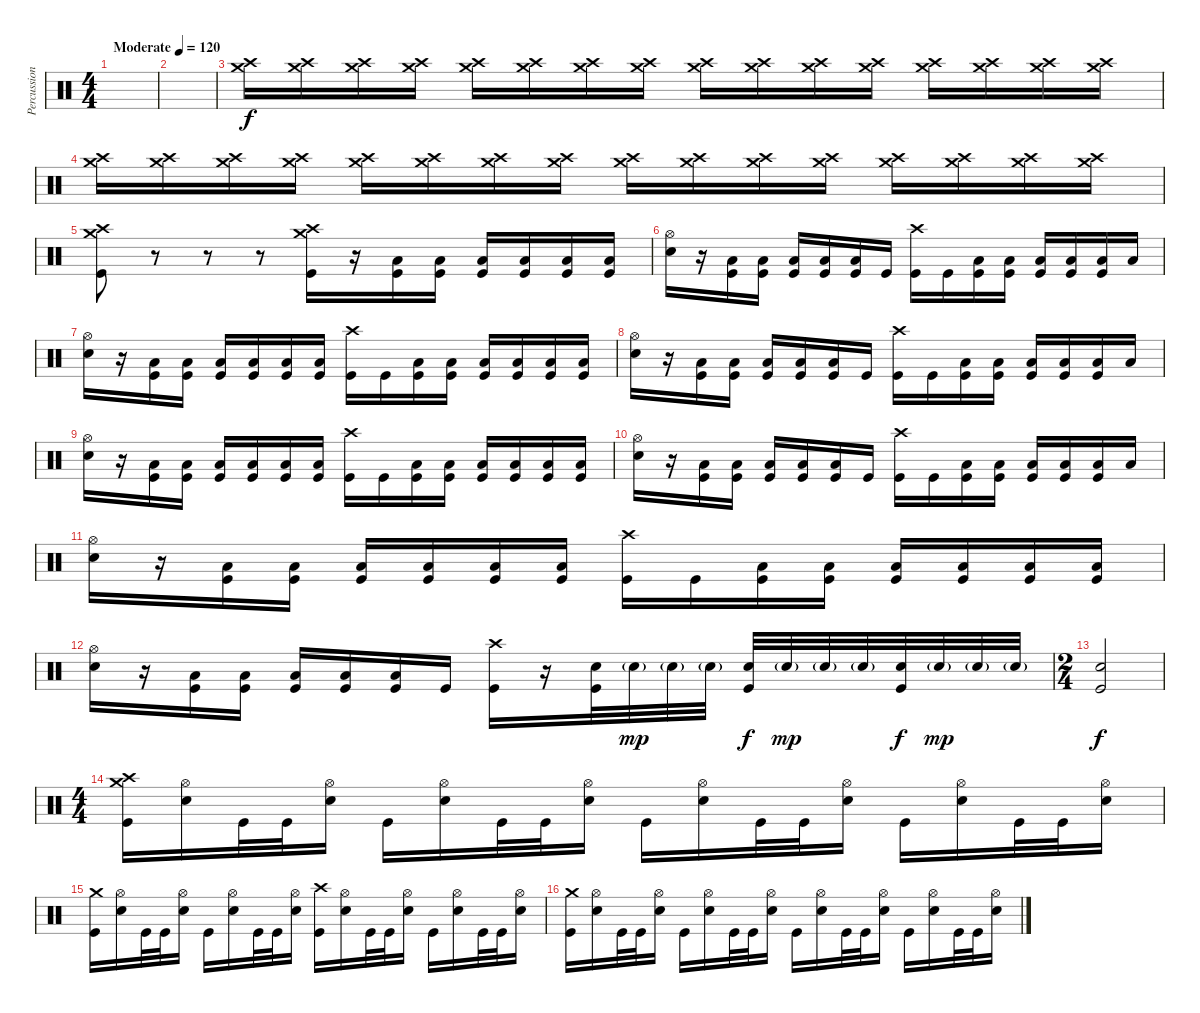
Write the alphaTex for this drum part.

\track ("Percussion" "Percussion") {instrument percussion}
\staff {score}
\articulation defaults
\ts (4 4)
\tempo (120 "Moderate")
\clef neutral
\ks c
|
|
("Crash medium (hit)" "Crash high (hit)").16{volume 0} ("Crash medium (hit)" "Crash high (hit)").16 ("Crash medium (hit)" "Crash high (hit)").16 ("Crash medium (hit)" "Crash high (hit)").16 ("Crash medium (hit)" "Crash high (hit)").16 ("Crash medium (hit)" "Crash high (hit)").16 ("Crash medium (hit)" "Crash high (hit)").16 ("Crash medium (hit)" "Crash high (hit)").16 ("Crash medium (hit)" "Crash high (hit)").16{volume 2} ("Crash medium (hit)" "Crash high (hit)").16 ("Crash medium (hit)" "Crash high (hit)").16 ("Crash medium (hit)" "Crash high (hit)").16 ("Crash medium (hit)" "Crash high (hit)").16 ("Crash medium (hit)" "Crash high (hit)").16 ("Crash medium (hit)" "Crash high (hit)").16 ("Crash medium (hit)" "Crash high (hit)").16 |
("Crash medium (hit)" "Crash high (hit)").16{volume 4} ("Crash medium (hit)" "Crash high (hit)").16 ("Crash medium (hit)" "Crash high (hit)").16 ("Crash medium (hit)" "Crash high (hit)").16 ("Crash medium (hit)" "Crash high (hit)").16 ("Crash medium (hit)" "Crash high (hit)").16 ("Crash medium (hit)" "Crash high (hit)").16 ("Crash medium (hit)" "Crash high (hit)").16 ("Crash medium (hit)" "Crash high (hit)").16{volume 8} ("Crash medium (hit)" "Crash high (hit)").16 ("Crash medium (hit)" "Crash high (hit)").16 ("Crash medium (hit)" "Crash high (hit)").16 ("Crash medium (hit)" "Crash high (hit)").16 ("Crash medium (hit)" "Crash high (hit)").16 ("Crash medium (hit)" "Crash high (hit)").16 ("Crash medium (hit)" "Crash high (hit)").16 |
("Crash medium (hit)" "Crash high (hit)" "Kick (hit)").8{volume 13} r.8{volume 0} r.8 r.8 ("Crash medium (hit)" "Crash high (hit)" "Kick (hit)").16{volume 13} r.16 ("Low Tom (hit)" "Kick (hit)").16 ("Low Tom (hit)" "Kick (hit)").16 ("Low Floor Tom (hit)" "Kick (hit)").16 ("Low Floor Tom (hit)" "Kick (hit)").16 ("Low Floor Tom (hit)" "Kick (hit)").16 ("Low Floor Tom (hit)" "Kick (hit)").16 |
("Hi-Hat (open)" "Snare (hit) 2").16 r.16 ("Low Tom (hit)" "Kick (hit)").16 ("Low Tom (hit)" "Kick (hit)").16 ("Low Floor Tom (hit)" "Kick (hit)").16 ("Low Floor Tom (hit)" "Kick (hit)").16 ("Low Floor Tom (hit)" "Kick (hit)").16 "Kick (hit)".16 ("Crash high (hit)" "Kick (hit)").16 "Kick (hit)".16 ("Low Tom (hit)" "Kick (hit)").16 ("Low Tom (hit)" "Kick (hit)").16 ("Low Floor Tom (hit)" "Kick (hit)").16 ("Low Floor Tom (hit)" "Kick (hit)").16 ("Low Floor Tom (hit)" "Kick (hit)").16 "Low Floor Tom (hit)".16 |
("Hi-Hat (open)" "Snare (hit) 2").16 r.16 ("Low Tom (hit)" "Kick (hit)").16 ("Low Tom (hit)" "Kick (hit)").16 ("Low Floor Tom (hit)" "Kick (hit)").16 ("Low Floor Tom (hit)" "Kick (hit)").16 ("Low Floor Tom (hit)" "Kick (hit)").16 ("Low Floor Tom (hit)" "Kick (hit)").16 ("Crash high (hit)" "Kick (hit)").16 "Kick (hit)".16 ("Low Tom (hit)" "Kick (hit)").16 ("Low Tom (hit)" "Kick (hit)").16 ("Low Floor Tom (hit)" "Kick (hit)").16 ("Low Floor Tom (hit)" "Kick (hit)").16 ("Low Floor Tom (hit)" "Kick (hit)").16 ("Low Floor Tom (hit)" "Kick (hit)").16 |
("Hi-Hat (open)" "Snare (hit) 2").16 r.16 ("Low Tom (hit)" "Kick (hit)").16 ("Low Tom (hit)" "Kick (hit)").16 ("Low Floor Tom (hit)" "Kick (hit)").16 ("Low Floor Tom (hit)" "Kick (hit)").16 ("Low Floor Tom (hit)" "Kick (hit)").16 "Kick (hit)".16 ("Crash high (hit)" "Kick (hit)").16 "Kick (hit)".16 ("Low Tom (hit)" "Kick (hit)").16 ("Low Tom (hit)" "Kick (hit)").16 ("Low Floor Tom (hit)" "Kick (hit)").16 ("Low Floor Tom (hit)" "Kick (hit)").16 ("Low Floor Tom (hit)" "Kick (hit)").16 "Low Floor Tom (hit)".16 |
("Hi-Hat (open)" "Snare (hit) 2").16 r.16 ("Low Tom (hit)" "Kick (hit)").16 ("Low Tom (hit)" "Kick (hit)").16 ("Low Floor Tom (hit)" "Kick (hit)").16 ("Low Floor Tom (hit)" "Kick (hit)").16 ("Low Floor Tom (hit)" "Kick (hit)").16 ("Low Floor Tom (hit)" "Kick (hit)").16 ("Crash high (hit)" "Kick (hit)").16 "Kick (hit)".16 ("Low Tom (hit)" "Kick (hit)").16 ("Low Tom (hit)" "Kick (hit)").16 ("Low Floor Tom (hit)" "Kick (hit)").16 ("Low Floor Tom (hit)" "Kick (hit)").16 ("Low Floor Tom (hit)" "Kick (hit)").16 ("Low Floor Tom (hit)" "Kick (hit)").16 |
("Hi-Hat (open)" "Snare (hit) 2").16 r.16 ("Low Tom (hit)" "Kick (hit)").16 ("Low Tom (hit)" "Kick (hit)").16 ("Low Floor Tom (hit)" "Kick (hit)").16 ("Low Floor Tom (hit)" "Kick (hit)").16 ("Low Floor Tom (hit)" "Kick (hit)").16 "Kick (hit)".16 ("Crash high (hit)" "Kick (hit)").16 "Kick (hit)".16 ("Low Tom (hit)" "Kick (hit)").16 ("Low Tom (hit)" "Kick (hit)").16 ("Low Floor Tom (hit)" "Kick (hit)").16 ("Low Floor Tom (hit)" "Kick (hit)").16 ("Low Floor Tom (hit)" "Kick (hit)").16 "Low Floor Tom (hit)".16 |
("Hi-Hat (open)" "Snare (hit) 2").16 r.16 ("Low Tom (hit)" "Kick (hit)").16 ("Low Tom (hit)" "Kick (hit)").16 ("Low Floor Tom (hit)" "Kick (hit)").16 ("Low Floor Tom (hit)" "Kick (hit)").16 ("Low Floor Tom (hit)" "Kick (hit)").16 ("Low Floor Tom (hit)" "Kick (hit)").16 ("Crash high (hit)" "Kick (hit)").16 "Kick (hit)".16 ("Low Tom (hit)" "Kick (hit)").16 ("Low Tom (hit)" "Kick (hit)").16 ("Low Floor Tom (hit)" "Kick (hit)").16 ("Low Floor Tom (hit)" "Kick (hit)").16 ("Low Floor Tom (hit)" "Kick (hit)").16 ("Low Floor Tom (hit)" "Kick (hit)").16 |
("Hi-Hat (open)" "Snare (hit) 2").16 r.16 ("Low Tom (hit)" "Kick (hit)").16 ("Low Tom (hit)" "Kick (hit)").16 ("Low Floor Tom (hit)" "Kick (hit)").16 ("Low Floor Tom (hit)" "Kick (hit)").16 ("Low Floor Tom (hit)" "Kick (hit)").16 "Kick (hit)".16 ("Crash high (hit)" "Kick (hit)").16 r.16 ("Snare (hit) 2" "Kick (hit)").32 "Snare (hit) 2"{g}.32{dy mp} "Snare (hit) 2"{g}.32 "Snare (hit) 2"{g}.32 ("Snare (hit) 2" "Kick (hit)").32{dy f} "Snare (hit) 2"{g}.32{dy mp} "Snare (hit) 2"{g}.32 "Snare (hit) 2"{g}.32 ("Snare (hit) 2" "Kick (hit)").32{dy f} "Snare (hit) 2"{g}.32{dy mp} "Snare (hit) 2"{g}.32 "Snare (hit) 2"{g}.32 |
\ts (2 4)
("Snare (hit) 2" "Kick (hit)").2{dy f} |
\ts (4 4)
("Crash medium (hit)" "Crash high (hit)" "Kick (hit)").16 ("Hi-Hat (open)" "Snare (hit) 2").16 "Kick (hit)".32 "Kick (hit)".32 ("Hi-Hat (open)" "Snare (hit) 2").16 "Kick (hit)".16 ("Hi-Hat (open)" "Snare (hit) 2").16 "Kick (hit)".32 "Kick (hit)".32 ("Hi-Hat (open)" "Snare (hit) 2").16 "Kick (hit)".16 ("Hi-Hat (open)" "Snare (hit) 2").16 "Kick (hit)".32 "Kick (hit)".32 ("Hi-Hat (open)" "Snare (hit) 2").16 "Kick (hit)".16 ("Hi-Hat (open)" "Snare (hit) 2").16 "Kick (hit)".32 "Kick (hit)".32 ("Hi-Hat (open)" "Snare (hit) 2").16 |
("Crash medium (hit)" "Kick (hit)").16 ("Hi-Hat (open)" "Snare (hit) 2").16 "Kick (hit)".32 "Kick (hit)".32 ("Hi-Hat (open)" "Snare (hit) 2").16 "Kick (hit)".16 ("Hi-Hat (open)" "Snare (hit) 2").16 "Kick (hit)".32 "Kick (hit)".32 ("Hi-Hat (open)" "Snare (hit) 2").16 ("Crash high (hit)" "Kick (hit)").16 ("Hi-Hat (open)" "Snare (hit) 2").16 "Kick (hit)".32 "Kick (hit)".32 ("Hi-Hat (open)" "Snare (hit) 2").16 "Kick (hit)".16 ("Hi-Hat (open)" "Snare (hit) 2").16 "Kick (hit)".32 "Kick (hit)".32 ("Hi-Hat (open)" "Snare (hit) 2").16 |
("Crash medium (hit)" "Kick (hit)").16 ("Hi-Hat (open)" "Snare (hit) 2").16 "Kick (hit)".32 "Kick (hit)".32 ("Hi-Hat (open)" "Snare (hit) 2").16 "Kick (hit)".16 ("Hi-Hat (open)" "Snare (hit) 2").16 "Kick (hit)".32 "Kick (hit)".32 ("Hi-Hat (open)" "Snare (hit) 2").16 "Kick (hit)".16 ("Hi-Hat (open)" "Snare (hit) 2").16 "Kick (hit)".32 "Kick (hit)".32 ("Hi-Hat (open)" "Snare (hit) 2").16 "Kick (hit)".16 ("Hi-Hat (open)" "Snare (hit) 2").16 "Kick (hit)".32 "Kick (hit)".32 ("Hi-Hat (open)" "Snare (hit) 2").16
